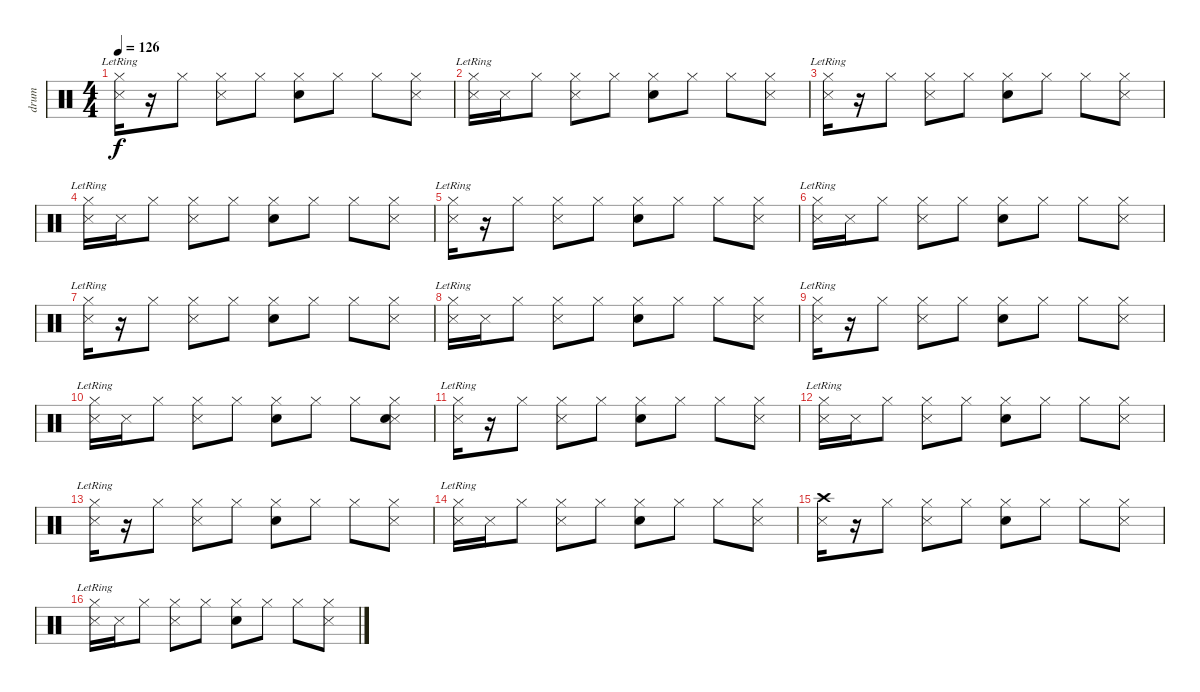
\track ("drum" "drum") {instrument percussion}
\staff {score}
\articulation defaults
\ts (4 4)
\tempo 126
\clef neutral
\ks c
("Hi-Hat (closed)"{lr} "Metronome (hit)").16{dy f} r.16 "Hi-Hat (closed)".8 ("Hi-Hat (closed)" "Metronome (hit)").8 "Hi-Hat (closed)".8 ("Hi-Hat (closed)" "Snare (hit) 2").8 "Hi-Hat (closed)".8 "Hi-Hat (closed)".8 ("Hi-Hat (closed)" "Metronome (hit)").8 |
("Hi-Hat (closed)"{lr} "Metronome (hit)").16 "Metronome (hit)".16 "Hi-Hat (closed)".8 ("Hi-Hat (closed)" "Metronome (hit)").8 "Hi-Hat (closed)".8 ("Hi-Hat (closed)" "Snare (hit) 2").8 "Hi-Hat (closed)".8 "Hi-Hat (closed)".8 ("Hi-Hat (closed)" "Metronome (hit)").8 |
("Hi-Hat (closed)"{lr} "Metronome (hit)").16 r.16 "Hi-Hat (closed)".8 ("Hi-Hat (closed)" "Metronome (hit)").8 "Hi-Hat (closed)".8 ("Hi-Hat (closed)" "Snare (hit) 2").8 "Hi-Hat (closed)".8 "Hi-Hat (closed)".8 ("Hi-Hat (closed)" "Metronome (hit)").8 |
("Hi-Hat (closed)"{lr} "Metronome (hit)").16 "Metronome (hit)".16 "Hi-Hat (closed)".8 ("Hi-Hat (closed)" "Metronome (hit)").8 "Hi-Hat (closed)".8 ("Hi-Hat (closed)" "Snare (hit) 2").8 "Hi-Hat (closed)".8 "Hi-Hat (closed)".8 ("Hi-Hat (closed)" "Metronome (hit)").8 |
("Hi-Hat (closed)"{lr} "Metronome (hit)").16 r.16 "Hi-Hat (closed)".8 ("Hi-Hat (closed)" "Metronome (hit)").8 "Hi-Hat (closed)".8 ("Hi-Hat (closed)" "Snare (hit) 2").8 "Hi-Hat (closed)".8 "Hi-Hat (closed)".8 ("Hi-Hat (closed)" "Metronome (hit)").8 |
("Hi-Hat (closed)"{lr} "Metronome (hit)").16 "Metronome (hit)".16 "Hi-Hat (closed)".8 ("Hi-Hat (closed)" "Metronome (hit)").8 "Hi-Hat (closed)".8 ("Hi-Hat (closed)" "Snare (hit) 2").8 "Hi-Hat (closed)".8 "Hi-Hat (closed)".8 ("Hi-Hat (closed)" "Metronome (hit)").8 |
("Hi-Hat (closed)"{lr} "Metronome (hit)").16 r.16 "Hi-Hat (closed)".8 ("Hi-Hat (closed)" "Metronome (hit)").8 "Hi-Hat (closed)".8 ("Hi-Hat (closed)" "Snare (hit) 2").8 "Hi-Hat (closed)".8 "Hi-Hat (closed)".8 ("Hi-Hat (closed)" "Metronome (hit)").8 |
("Hi-Hat (closed)"{lr} "Metronome (hit)").16 "Metronome (hit)".16 "Hi-Hat (closed)".8 ("Hi-Hat (closed)" "Metronome (hit)").8 "Hi-Hat (closed)".8 ("Hi-Hat (closed)" "Snare (hit) 2").8 "Hi-Hat (closed)".8 "Hi-Hat (closed)".8 ("Hi-Hat (closed)" "Metronome (hit)").8 |
("Hi-Hat (closed)"{lr} "Metronome (hit)").16 r.16 "Hi-Hat (closed)".8 ("Hi-Hat (closed)" "Metronome (hit)").8 "Hi-Hat (closed)".8 ("Hi-Hat (closed)" "Snare (hit) 2").8 "Hi-Hat (closed)".8 "Hi-Hat (closed)".8 ("Hi-Hat (closed)" "Metronome (hit)").8 |
("Hi-Hat (closed)"{lr} "Metronome (hit)").16 "Metronome (hit)".16 "Hi-Hat (closed)".8 ("Hi-Hat (closed)" "Metronome (hit)").8 "Hi-Hat (closed)".8 ("Hi-Hat (closed)" "Snare (hit) 2").8 "Hi-Hat (closed)".8 "Hi-Hat (closed)".8 ("Hi-Hat (closed)" "Metronome (hit)" "Snare (hit) 2").8 |
("Hi-Hat (closed)"{lr} "Metronome (hit)").16 r.16 "Hi-Hat (closed)".8 ("Hi-Hat (closed)" "Metronome (hit)").8 "Hi-Hat (closed)".8 ("Hi-Hat (closed)" "Snare (hit) 2").8 "Hi-Hat (closed)".8 "Hi-Hat (closed)".8 ("Hi-Hat (closed)" "Metronome (hit)").8 |
("Hi-Hat (closed)"{lr} "Metronome (hit)").16 "Metronome (hit)".16 "Hi-Hat (closed)".8 ("Hi-Hat (closed)" "Metronome (hit)").8 "Hi-Hat (closed)".8 ("Hi-Hat (closed)" "Snare (hit) 2").8 "Hi-Hat (closed)".8 "Hi-Hat (closed)".8 ("Hi-Hat (closed)" "Metronome (hit)").8 |
("Hi-Hat (closed)"{lr} "Metronome (hit)").16 r.16 "Hi-Hat (closed)".8 ("Hi-Hat (closed)" "Metronome (hit)").8 "Hi-Hat (closed)".8 ("Hi-Hat (closed)" "Snare (hit) 2").8 "Hi-Hat (closed)".8 "Hi-Hat (closed)".8 ("Hi-Hat (closed)" "Metronome (hit)").8 |
("Hi-Hat (closed)"{lr} "Metronome (hit)").16 "Metronome (hit)".16 "Hi-Hat (closed)".8 ("Hi-Hat (closed)" "Metronome (hit)").8 "Hi-Hat (closed)".8 ("Hi-Hat (closed)" "Snare (hit) 2").8 "Hi-Hat (closed)".8 "Hi-Hat (closed)".8 ("Hi-Hat (closed)" "Metronome (hit)").8 |
("Metronome (hit)" "Crash high (hit)").16 r.16 "Hi-Hat (closed)".8 ("Hi-Hat (closed)" "Metronome (hit)").8 "Hi-Hat (closed)".8 ("Hi-Hat (closed)" "Snare (hit) 2").8 "Hi-Hat (closed)".8 "Hi-Hat (closed)".8 ("Hi-Hat (closed)" "Metronome (hit)").8 |
("Hi-Hat (closed)"{lr} "Metronome (hit)").16 "Metronome (hit)".16 "Hi-Hat (closed)".8 ("Hi-Hat (closed)" "Metronome (hit)").8 "Hi-Hat (closed)".8 ("Hi-Hat (closed)" "Snare (hit) 2").8 "Hi-Hat (closed)".8 "Hi-Hat (closed)".8 ("Hi-Hat (closed)" "Metronome (hit)").8
